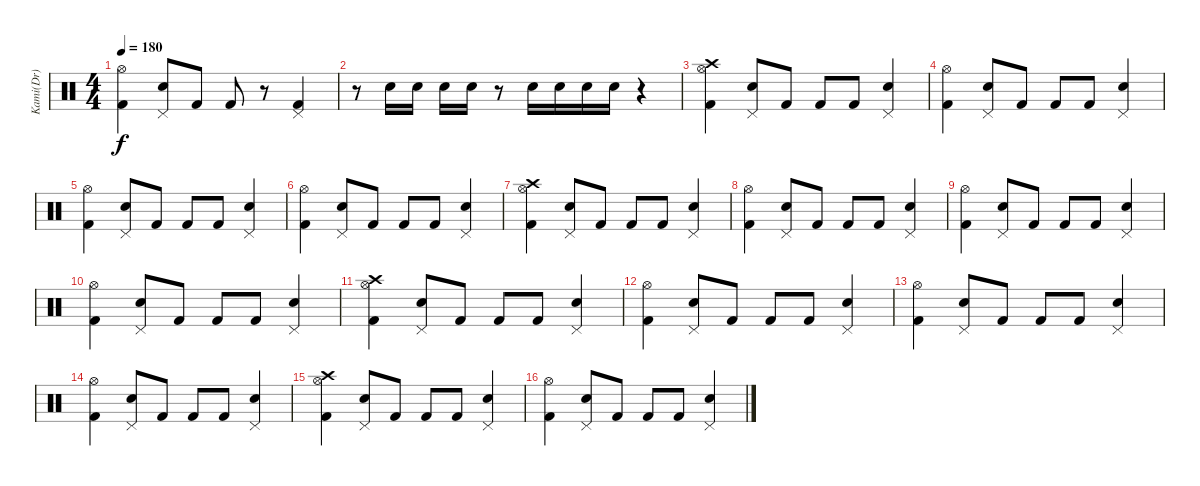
\track ("Kami(Dr)" "Kami(Dr)") {instrument percussion}
\staff {score}
\articulation defaults
\ts (4 4)
\tempo 180
\clef neutral
\ks c
("Kick (hit) 2" "Hi-Hat (open)").4{dy f} ("Electric Snare (hit)" "Pedal Hi-Hat (hit)").8 "Kick (hit) 2".8 "Kick (hit) 2".8 r.8 ("Kick (hit) 2" "Pedal Hi-Hat (hit)").4 |
r.8 "Electric Snare (hit)".16 "Electric Snare (hit)".16 "Electric Snare (hit)".16 "Electric Snare (hit)".16 r.8 "Electric Snare (hit)".16 "Electric Snare (hit)".16 "Electric Snare (hit)".16 "Electric Snare (hit)".16 r.4 |
("Kick (hit) 2" "Hi-Hat (open)" "Crash high (hit)").4 ("Electric Snare (hit)" "Pedal Hi-Hat (hit)").8 "Kick (hit) 2".8 "Kick (hit) 2".8 "Kick (hit) 2".8 ("Electric Snare (hit)" "Pedal Hi-Hat (hit)").4 |
("Kick (hit) 2" "Hi-Hat (open)").4 ("Electric Snare (hit)" "Pedal Hi-Hat (hit)").8 "Kick (hit) 2".8 "Kick (hit) 2".8 "Kick (hit) 2".8 ("Electric Snare (hit)" "Pedal Hi-Hat (hit)").4 |
("Kick (hit) 2" "Hi-Hat (open)").4 ("Electric Snare (hit)" "Pedal Hi-Hat (hit)").8 "Kick (hit) 2".8 "Kick (hit) 2".8 "Kick (hit) 2".8 ("Electric Snare (hit)" "Pedal Hi-Hat (hit)").4 |
("Kick (hit) 2" "Hi-Hat (open)").4 ("Electric Snare (hit)" "Pedal Hi-Hat (hit)").8 "Kick (hit) 2".8 "Kick (hit) 2".8 "Kick (hit) 2".8 ("Electric Snare (hit)" "Pedal Hi-Hat (hit)").4 |
("Kick (hit) 2" "Hi-Hat (open)" "Crash high (hit)").4 ("Electric Snare (hit)" "Pedal Hi-Hat (hit)").8 "Kick (hit) 2".8 "Kick (hit) 2".8 "Kick (hit) 2".8 ("Electric Snare (hit)" "Pedal Hi-Hat (hit)").4 |
("Kick (hit) 2" "Hi-Hat (open)").4 ("Electric Snare (hit)" "Pedal Hi-Hat (hit)").8 "Kick (hit) 2".8 "Kick (hit) 2".8 "Kick (hit) 2".8 ("Electric Snare (hit)" "Pedal Hi-Hat (hit)").4 |
("Kick (hit) 2" "Hi-Hat (open)").4 ("Electric Snare (hit)" "Pedal Hi-Hat (hit)").8 "Kick (hit) 2".8 "Kick (hit) 2".8 "Kick (hit) 2".8 ("Electric Snare (hit)" "Pedal Hi-Hat (hit)").4 |
("Kick (hit) 2" "Hi-Hat (open)").4 ("Electric Snare (hit)" "Pedal Hi-Hat (hit)").8 "Kick (hit) 2".8 "Kick (hit) 2".8 "Kick (hit) 2".8 ("Electric Snare (hit)" "Pedal Hi-Hat (hit)").4 |
("Kick (hit) 2" "Hi-Hat (open)" "Crash high (hit)").4 ("Electric Snare (hit)" "Pedal Hi-Hat (hit)").8 "Kick (hit) 2".8 "Kick (hit) 2".8 "Kick (hit) 2".8 ("Electric Snare (hit)" "Pedal Hi-Hat (hit)").4 |
("Kick (hit) 2" "Hi-Hat (open)").4 ("Electric Snare (hit)" "Pedal Hi-Hat (hit)").8 "Kick (hit) 2".8 "Kick (hit) 2".8 "Kick (hit) 2".8 ("Electric Snare (hit)" "Pedal Hi-Hat (hit)").4 |
("Kick (hit) 2" "Hi-Hat (open)").4 ("Electric Snare (hit)" "Pedal Hi-Hat (hit)").8 "Kick (hit) 2".8 "Kick (hit) 2".8 "Kick (hit) 2".8 ("Electric Snare (hit)" "Pedal Hi-Hat (hit)").4 |
("Kick (hit) 2" "Hi-Hat (open)").4 ("Electric Snare (hit)" "Pedal Hi-Hat (hit)").8 "Kick (hit) 2".8 "Kick (hit) 2".8 "Kick (hit) 2".8 ("Electric Snare (hit)" "Pedal Hi-Hat (hit)").4 |
("Kick (hit) 2" "Hi-Hat (open)" "Crash high (hit)").4 ("Electric Snare (hit)" "Pedal Hi-Hat (hit)").8 "Kick (hit) 2".8 "Kick (hit) 2".8 "Kick (hit) 2".8 ("Electric Snare (hit)" "Pedal Hi-Hat (hit)").4 |
("Kick (hit) 2" "Hi-Hat (open)").4 ("Electric Snare (hit)" "Pedal Hi-Hat (hit)").8 "Kick (hit) 2".8 "Kick (hit) 2".8 "Kick (hit) 2".8 ("Electric Snare (hit)" "Pedal Hi-Hat (hit)").4
